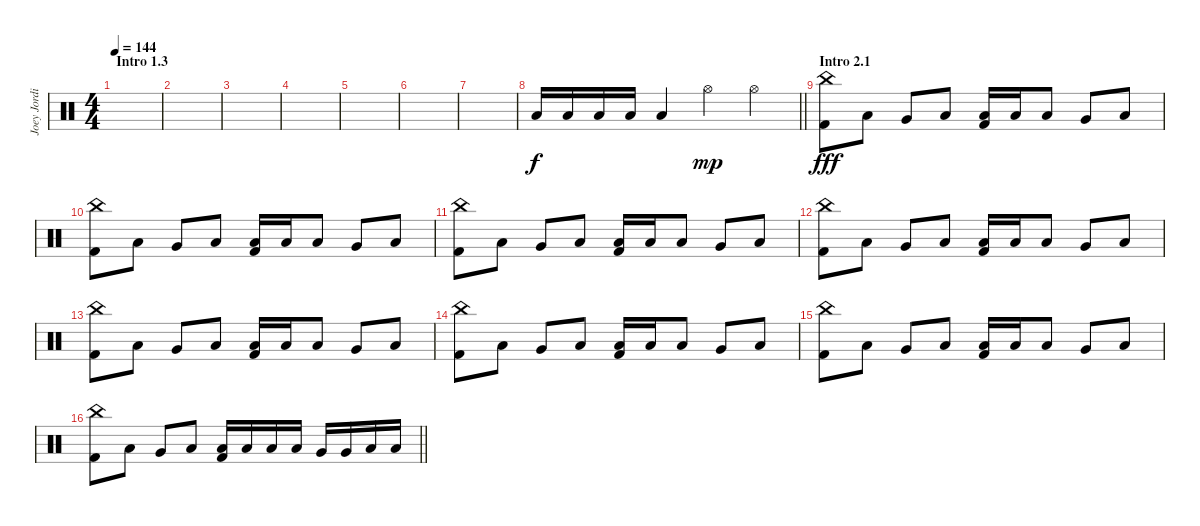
\track ("Joey Jordison" "Joey Jordi") {instrument percussion}
\staff {score}
\articulation defaults
\ts (4 4)
\section ("" "Intro 1.3")
\tempo 144
\clef neutral
\ks c
|
|
|
|
|
|
|
\barLineRight lightlight "Low Floor Tom (hit)".16 "Low Floor Tom (hit)".16 "Low Floor Tom (hit)".16 "Low Floor Tom (hit)".16 "Low Floor Tom (hit)".4 "Hi-Hat (open)".4{dy mp} "Hi-Hat (open)".4
|
\section ("" "Intro 2.1")
("China (hit)" "Kick (hit) 2").8{dy fff} "Low Tom (hit)".8 "Very Low Tom (hit)".8 "Low Floor Tom (hit)".8 ("Low Tom (hit)" "Kick (hit) 2").16 "Low Tom (hit)".16 "Low Tom (hit)".8 "Very Low Tom (hit)".8 "Low Floor Tom (hit)".8 |
("China (hit)" "Kick (hit) 2").8 "Low Tom (hit)".8 "Very Low Tom (hit)".8 "Low Floor Tom (hit)".8 ("Low Tom (hit)" "Kick (hit) 2").16 "Low Tom (hit)".16 "Low Tom (hit)".8 "Very Low Tom (hit)".8 "Low Floor Tom (hit)".8 |
("China (hit)" "Kick (hit) 2").8 "Low Tom (hit)".8 "Very Low Tom (hit)".8 "Low Floor Tom (hit)".8 ("Low Tom (hit)" "Kick (hit) 2").16 "Low Tom (hit)".16 "Low Tom (hit)".8 "Very Low Tom (hit)".8 "Low Floor Tom (hit)".8 |
("China (hit)" "Kick (hit) 2").8 "Low Tom (hit)".8 "Very Low Tom (hit)".8 "Low Floor Tom (hit)".8 ("Low Tom (hit)" "Kick (hit) 2").16 "Low Tom (hit)".16 "Low Tom (hit)".8 "Very Low Tom (hit)".8 "Low Floor Tom (hit)".8 |
("China (hit)" "Kick (hit) 2").8 "Low Tom (hit)".8 "Very Low Tom (hit)".8 "Low Floor Tom (hit)".8 ("Low Tom (hit)" "Kick (hit) 2").16 "Low Tom (hit)".16 "Low Tom (hit)".8 "Very Low Tom (hit)".8 "Low Floor Tom (hit)".8 |
("China (hit)" "Kick (hit) 2").8 "Low Tom (hit)".8 "Very Low Tom (hit)".8 "Low Floor Tom (hit)".8 ("Low Tom (hit)" "Kick (hit) 2").16 "Low Tom (hit)".16 "Low Tom (hit)".8 "Very Low Tom (hit)".8 "Low Floor Tom (hit)".8 |
("China (hit)" "Kick (hit) 2").8 "Low Tom (hit)".8 "Very Low Tom (hit)".8 "Low Floor Tom (hit)".8 ("Low Tom (hit)" "Kick (hit) 2").16 "Low Tom (hit)".16 "Low Tom (hit)".8 "Very Low Tom (hit)".8 "Low Floor Tom (hit)".8 |
\barLineRight lightlight
("China (hit)" "Kick (hit) 2").8 "Low Tom (hit)".8 "Very Low Tom (hit)".8 "Low Floor Tom (hit)".8 ("Low Tom (hit)" "Kick (hit) 2").16 "Low Tom (hit)".16 "Low Tom (hit)".16 "Low Tom (hit)".16 "Very Low Tom (hit)".16 "Very Low Tom (hit)".16 "Low Floor Tom (hit)".16 "Low Floor Tom (hit)".16
